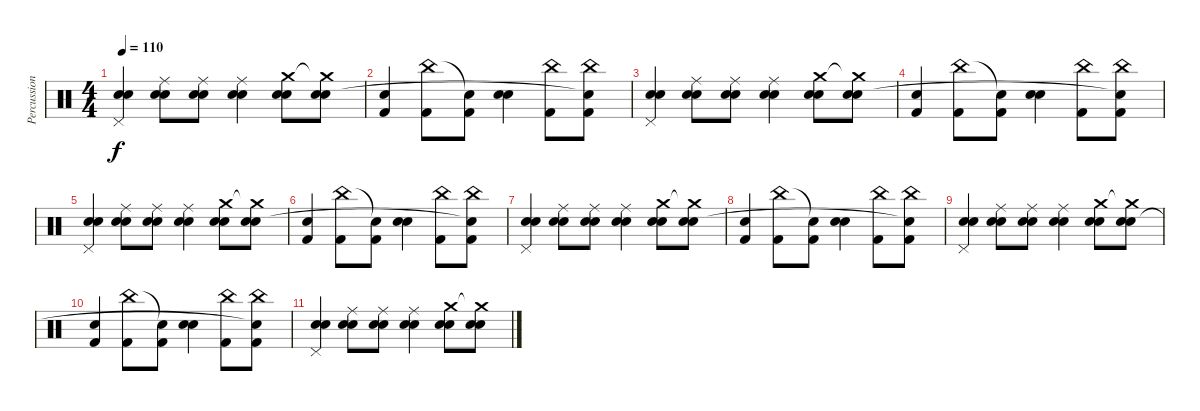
\track ("Percussion" "Percussion") {instrument percussion}
\staff {score}
\articulation defaults
\ts (4 4)
\tempo 110
\clef neutral
\ks c
("Pedal Hi-Hat (hit)" "Electric Snare (hit)" "Snare (hit) 2").4{dy f} ("Snare (hit) 2" "Ride (middle)" "Electric Snare (hit)").8 ("Snare (hit) 2" "Ride (middle)" "Electric Snare (hit)").8 ("Snare (hit) 2" "Ride (middle)" "Electric Snare (hit)").4 ("Snare (hit) 2" "Crash medium (hit)" "Electric Snare (hit)").8 ("Snare (hit) 2" "Crash medium (hit)"{t} "Electric Snare (hit)").8 |
("Kick (hit) 2" "Electric Snare (hit)").4 ("Kick (hit) 2" "China (hit)").8 ("Kick (hit) 2" "Snare (hit)"{t}).8 ("Hand Clap (hit)" "Electric Snare (hit)").4 ("Kick (hit) 2" "China (hit)").8 ("Kick (hit) 2" "China (hit)" "Snare (hit)"{t}).8 |
("Pedal Hi-Hat (hit)" "Electric Snare (hit)" "Snare (hit) 2").4 ("Snare (hit) 2" "Ride (middle)" "Electric Snare (hit)").8 ("Snare (hit) 2" "Ride (middle)" "Electric Snare (hit)").8 ("Snare (hit) 2" "Ride (middle)" "Electric Snare (hit)").4 ("Snare (hit) 2" "Crash medium (hit)" "Electric Snare (hit)").8 ("Snare (hit) 2" "Crash medium (hit)"{t} "Electric Snare (hit)").8 |
("Kick (hit) 2" "Electric Snare (hit)").4 ("Kick (hit) 2" "China (hit)").8 ("Kick (hit) 2" "Snare (hit)"{t}).8 ("Hand Clap (hit)" "Electric Snare (hit)").4 ("Kick (hit) 2" "China (hit)").8 ("Kick (hit) 2" "China (hit)" "Snare (hit)"{t}).8 |
("Pedal Hi-Hat (hit)" "Electric Snare (hit)" "Snare (hit) 2").4 ("Snare (hit) 2" "Ride (middle)" "Electric Snare (hit)").8 ("Snare (hit) 2" "Ride (middle)" "Electric Snare (hit)").8 ("Snare (hit) 2" "Ride (middle)" "Electric Snare (hit)").4 ("Snare (hit) 2" "Crash medium (hit)" "Electric Snare (hit)").8 ("Snare (hit) 2" "Crash medium (hit)"{t} "Electric Snare (hit)").8 |
("Kick (hit) 2" "Electric Snare (hit)").4 ("Kick (hit) 2" "China (hit)").8 ("Kick (hit) 2" "Snare (hit)"{t}).8 ("Hand Clap (hit)" "Electric Snare (hit)").4 ("Kick (hit) 2" "China (hit)").8 ("Kick (hit) 2" "China (hit)" "Snare (hit)"{t}).8 |
("Pedal Hi-Hat (hit)" "Electric Snare (hit)" "Snare (hit) 2").4 ("Snare (hit) 2" "Ride (middle)" "Electric Snare (hit)").8 ("Snare (hit) 2" "Ride (middle)" "Electric Snare (hit)").8 ("Snare (hit) 2" "Ride (middle)" "Electric Snare (hit)").4 ("Snare (hit) 2" "Crash medium (hit)" "Electric Snare (hit)").8 ("Snare (hit) 2" "Crash medium (hit)"{t} "Electric Snare (hit)").8 |
("Kick (hit) 2" "Electric Snare (hit)").4 ("Kick (hit) 2" "China (hit)").8 ("Kick (hit) 2" "Snare (hit)"{t}).8 ("Hand Clap (hit)" "Electric Snare (hit)").4 ("Kick (hit) 2" "China (hit)").8 ("Kick (hit) 2" "China (hit)" "Snare (hit)"{t}).8 |
("Pedal Hi-Hat (hit)" "Electric Snare (hit)" "Snare (hit) 2").4 ("Snare (hit) 2" "Ride (middle)" "Electric Snare (hit)").8 ("Snare (hit) 2" "Ride (middle)" "Electric Snare (hit)").8 ("Snare (hit) 2" "Ride (middle)" "Electric Snare (hit)").4 ("Snare (hit) 2" "Crash medium (hit)" "Electric Snare (hit)").8 ("Snare (hit) 2" "Crash medium (hit)"{t} "Electric Snare (hit)").8 |
("Kick (hit) 2" "Electric Snare (hit)").4 ("Kick (hit) 2" "China (hit)").8 ("Kick (hit) 2" "Snare (hit)"{t}).8 ("Hand Clap (hit)" "Electric Snare (hit)").4 ("Kick (hit) 2" "China (hit)").8 ("Kick (hit) 2" "China (hit)" "Snare (hit)"{t}).8 |
("Pedal Hi-Hat (hit)" "Electric Snare (hit)" "Snare (hit) 2").4 ("Snare (hit) 2" "Ride (middle)" "Electric Snare (hit)").8 ("Snare (hit) 2" "Ride (middle)" "Electric Snare (hit)").8 ("Snare (hit) 2" "Ride (middle)" "Electric Snare (hit)").4 ("Snare (hit) 2" "Crash medium (hit)" "Electric Snare (hit)").8 ("Snare (hit) 2" "Crash medium (hit)"{t} "Electric Snare (hit)").8
